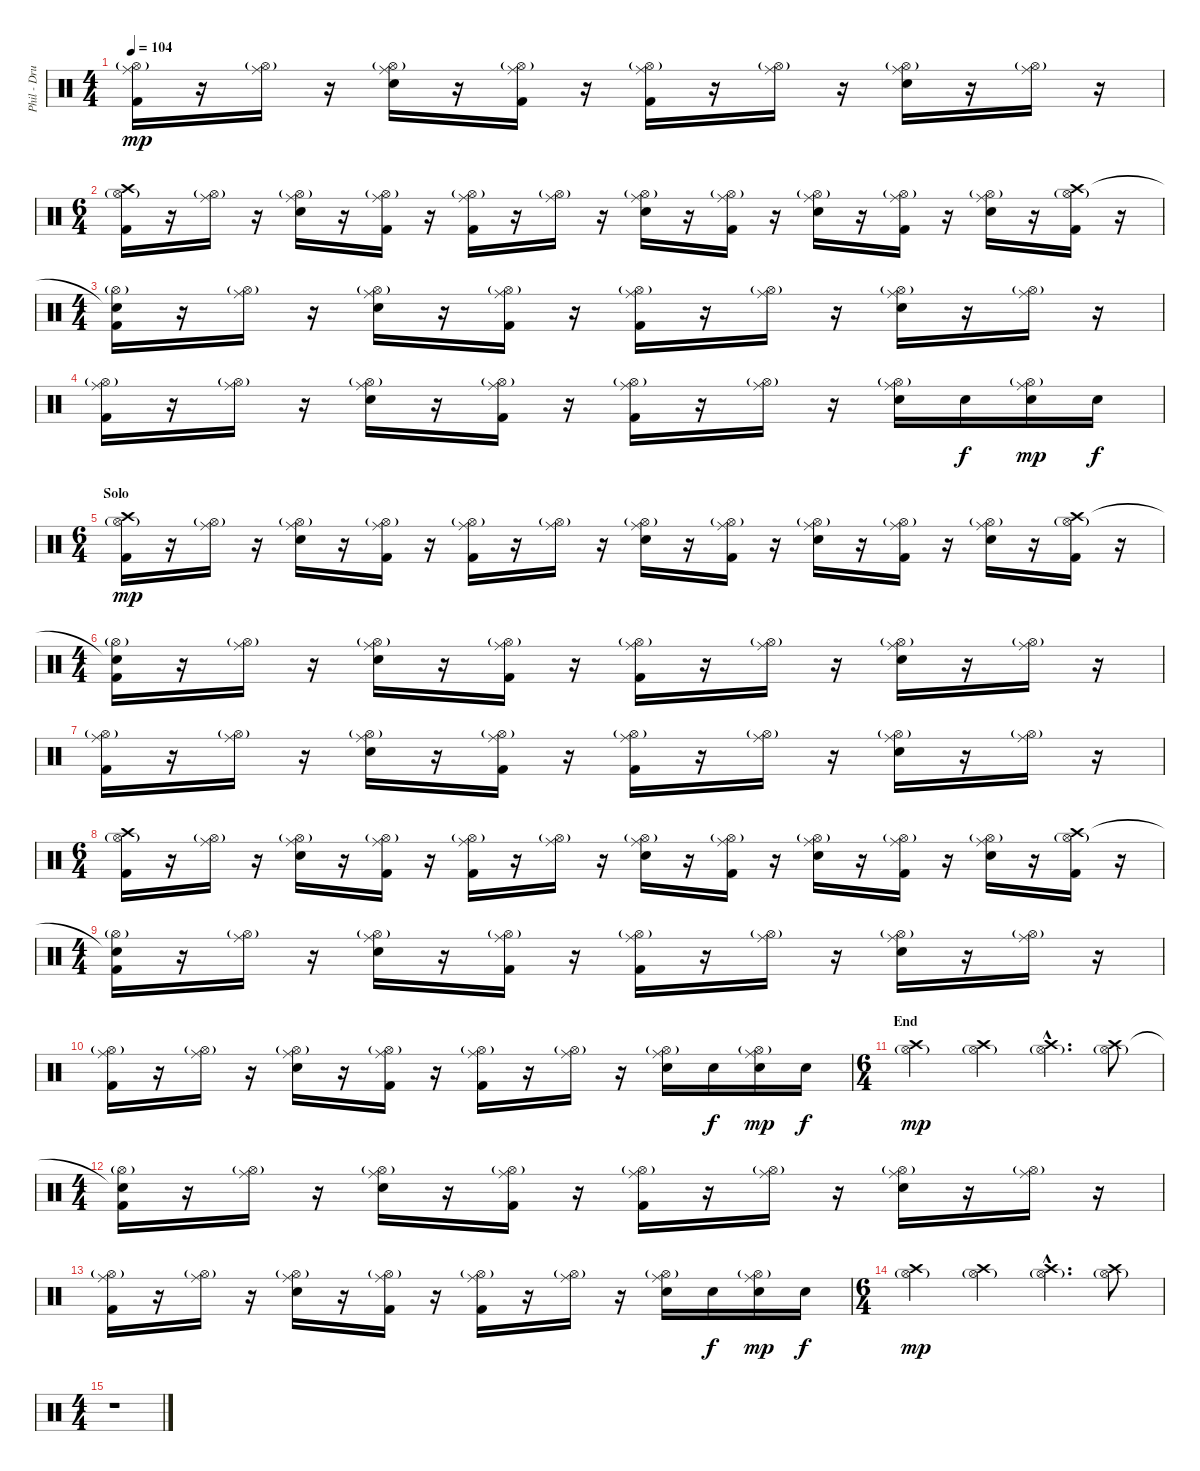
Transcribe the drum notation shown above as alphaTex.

\track ("Phil - Drums" "Phil - Dru") {instrument percussion}
\staff {score}
\articulation defaults
\ts (4 4)
\tempo 104
\clef neutral
\ks c
("Ride (middle)" "Kick (hit) 2" "Hi-Hat (open)"{g}).16{dy mp} r.16 ("Ride (middle)" "Hi-Hat (open)"{g}).16 r.16 ("Ride (middle)" "Electric Snare (hit)" "Hi-Hat (open)"{g}).16 r.16 ("Ride (middle)" "Kick (hit) 2" "Hi-Hat (open)"{g}).16 r.16 ("Ride (middle)" "Kick (hit) 2" "Hi-Hat (open)"{g}).16 r.16 ("Ride (middle)" "Hi-Hat (open)"{g}).16 r.16 ("Ride (middle)" "Electric Snare (hit)" "Hi-Hat (open)"{g}).16 r.16 ("Ride (middle)" "Hi-Hat (open)"{g}).16 r.16 |
\ts (6 4)
("Crash high (hit)" "Kick (hit) 2" "Hi-Hat (open)"{g}).16 r.16 ("Ride (middle)" "Hi-Hat (open)"{g}).16 r.16 ("Ride (middle)" "Electric Snare (hit)" "Hi-Hat (open)"{g}).16 r.16 ("Ride (middle)" "Kick (hit) 2" "Hi-Hat (open)"{g}).16 r.16 ("Ride (middle)" "Kick (hit) 2" "Hi-Hat (open)"{g}).16 r.16 ("Ride (middle)" "Hi-Hat (open)"{g}).16 r.16 ("Ride (middle)" "Electric Snare (hit)" "Hi-Hat (open)"{g}).16 r.16 ("Ride (middle)" "Kick (hit) 2" "Hi-Hat (open)"{g}).16 r.16 ("Ride (middle)" "Electric Snare (hit)" "Hi-Hat (open)"{g}).16 r.16 ("Ride (middle)" "Kick (hit) 2" "Hi-Hat (open)"{g}).16 r.16 ("Ride (middle)" "Electric Snare (hit)" "Hi-Hat (open)"{g}).16 r.16 ("Crash high (hit)" "Kick (hit) 2" "Hi-Hat (open)"{g}).16 r.16 |
\ts (4 4)
("Snare (hit)"{t} "Kick (hit) 2" "Hi-Hat (open)"{g}).16 r.16 ("Ride (middle)" "Hi-Hat (open)"{g}).16 r.16 ("Ride (middle)" "Electric Snare (hit)" "Hi-Hat (open)"{g}).16 r.16 ("Ride (middle)" "Kick (hit) 2" "Hi-Hat (open)"{g}).16 r.16 ("Ride (middle)" "Kick (hit) 2" "Hi-Hat (open)"{g}).16 r.16 ("Ride (middle)" "Hi-Hat (open)"{g}).16 r.16 ("Ride (middle)" "Electric Snare (hit)" "Hi-Hat (open)"{g}).16 r.16 ("Ride (middle)" "Hi-Hat (open)"{g}).16 r.16 |
("Ride (middle)" "Kick (hit) 2" "Hi-Hat (open)"{g}).16 r.16 ("Ride (middle)" "Hi-Hat (open)"{g}).16 r.16 ("Ride (middle)" "Electric Snare (hit)" "Hi-Hat (open)"{g}).16 r.16 ("Ride (middle)" "Kick (hit) 2" "Hi-Hat (open)"{g}).16 r.16 ("Ride (middle)" "Kick (hit) 2" "Hi-Hat (open)"{g}).16 r.16 ("Ride (middle)" "Hi-Hat (open)"{g}).16 r.16 ("Ride (middle)" "Electric Snare (hit)" "Hi-Hat (open)"{g}).16 "Electric Snare (hit)".16{dy f} ("Ride (middle)" "Electric Snare (hit)" "Hi-Hat (open)"{g}).16{dy mp} "Electric Snare (hit)".16{dy f} |
\ts (6 4)
\section ("" "Solo")
("Crash high (hit)" "Kick (hit) 2" "Hi-Hat (open)"{g}).16{dy mp} r.16 ("Ride (middle)" "Hi-Hat (open)"{g}).16 r.16 ("Ride (middle)" "Electric Snare (hit)" "Hi-Hat (open)"{g}).16 r.16 ("Ride (middle)" "Kick (hit) 2" "Hi-Hat (open)"{g}).16 r.16 ("Ride (middle)" "Kick (hit) 2" "Hi-Hat (open)"{g}).16 r.16 ("Ride (middle)" "Hi-Hat (open)"{g}).16 r.16 ("Ride (middle)" "Electric Snare (hit)" "Hi-Hat (open)"{g}).16 r.16 ("Ride (middle)" "Kick (hit) 2" "Hi-Hat (open)"{g}).16 r.16 ("Ride (middle)" "Electric Snare (hit)" "Hi-Hat (open)"{g}).16 r.16 ("Ride (middle)" "Kick (hit) 2" "Hi-Hat (open)"{g}).16 r.16 ("Ride (middle)" "Electric Snare (hit)" "Hi-Hat (open)"{g}).16 r.16 ("Crash high (hit)" "Kick (hit) 2" "Hi-Hat (open)"{g}).16 r.16 |
\ts (4 4)
("Snare (hit)"{t} "Kick (hit) 2" "Hi-Hat (open)"{g}).16 r.16 ("Ride (middle)" "Hi-Hat (open)"{g}).16 r.16 ("Ride (middle)" "Electric Snare (hit)" "Hi-Hat (open)"{g}).16 r.16 ("Ride (middle)" "Kick (hit) 2" "Hi-Hat (open)"{g}).16 r.16 ("Ride (middle)" "Kick (hit) 2" "Hi-Hat (open)"{g}).16 r.16 ("Ride (middle)" "Hi-Hat (open)"{g}).16 r.16 ("Ride (middle)" "Electric Snare (hit)" "Hi-Hat (open)"{g}).16 r.16 ("Ride (middle)" "Hi-Hat (open)"{g}).16 r.16 |
("Ride (middle)" "Kick (hit) 2" "Hi-Hat (open)"{g}).16 r.16 ("Ride (middle)" "Hi-Hat (open)"{g}).16 r.16 ("Ride (middle)" "Electric Snare (hit)" "Hi-Hat (open)"{g}).16 r.16 ("Ride (middle)" "Kick (hit) 2" "Hi-Hat (open)"{g}).16 r.16 ("Ride (middle)" "Kick (hit) 2" "Hi-Hat (open)"{g}).16 r.16 ("Ride (middle)" "Hi-Hat (open)"{g}).16 r.16 ("Ride (middle)" "Electric Snare (hit)" "Hi-Hat (open)"{g}).16 r.16 ("Ride (middle)" "Hi-Hat (open)"{g}).16 r.16 |
\ts (6 4)
("Crash high (hit)" "Kick (hit) 2" "Hi-Hat (open)"{g}).16 r.16 ("Ride (middle)" "Hi-Hat (open)"{g}).16 r.16 ("Ride (middle)" "Electric Snare (hit)" "Hi-Hat (open)"{g}).16 r.16 ("Ride (middle)" "Kick (hit) 2" "Hi-Hat (open)"{g}).16 r.16 ("Ride (middle)" "Kick (hit) 2" "Hi-Hat (open)"{g}).16 r.16 ("Ride (middle)" "Hi-Hat (open)"{g}).16 r.16 ("Ride (middle)" "Electric Snare (hit)" "Hi-Hat (open)"{g}).16 r.16 ("Ride (middle)" "Kick (hit) 2" "Hi-Hat (open)"{g}).16 r.16 ("Ride (middle)" "Electric Snare (hit)" "Hi-Hat (open)"{g}).16 r.16 ("Ride (middle)" "Kick (hit) 2" "Hi-Hat (open)"{g}).16 r.16 ("Ride (middle)" "Electric Snare (hit)" "Hi-Hat (open)"{g}).16 r.16 ("Crash high (hit)" "Kick (hit) 2" "Hi-Hat (open)"{g}).16 r.16 |
\ts (4 4)
("Snare (hit)"{t} "Kick (hit) 2" "Hi-Hat (open)"{g}).16 r.16 ("Ride (middle)" "Hi-Hat (open)"{g}).16 r.16 ("Ride (middle)" "Electric Snare (hit)" "Hi-Hat (open)"{g}).16 r.16 ("Ride (middle)" "Kick (hit) 2" "Hi-Hat (open)"{g}).16 r.16 ("Ride (middle)" "Kick (hit) 2" "Hi-Hat (open)"{g}).16 r.16 ("Ride (middle)" "Hi-Hat (open)"{g}).16 r.16 ("Ride (middle)" "Electric Snare (hit)" "Hi-Hat (open)"{g}).16 r.16 ("Ride (middle)" "Hi-Hat (open)"{g}).16 r.16 |
("Ride (middle)" "Kick (hit) 2" "Hi-Hat (open)"{g}).16 r.16 ("Ride (middle)" "Hi-Hat (open)"{g}).16 r.16 ("Ride (middle)" "Electric Snare (hit)" "Hi-Hat (open)"{g}).16 r.16 ("Ride (middle)" "Kick (hit) 2" "Hi-Hat (open)"{g}).16 r.16 ("Ride (middle)" "Kick (hit) 2" "Hi-Hat (open)"{g}).16 r.16 ("Ride (middle)" "Hi-Hat (open)"{g}).16 r.16 ("Ride (middle)" "Electric Snare (hit)" "Hi-Hat (open)"{g}).16 "Electric Snare (hit)".16{dy f} ("Ride (middle)" "Electric Snare (hit)" "Hi-Hat (open)"{g}).16{dy mp} "Electric Snare (hit)".16{dy f} |
\ts (6 4)
\section ("" "End")
("Crash high (hit)" "Hi-Hat (open)"{g}).2{dy mp} ("Crash high (hit)" "Hi-Hat (open)"{g}).2 ("Crash high (hit)"{hac} "Hi-Hat (open)"{g hac}).4{d} ("Crash high (hit)" "Hi-Hat (open)"{g}).8 |
\ts (4 4)
("Snare (hit)"{t} "Kick (hit) 2" "Hi-Hat (open)"{g}).16 r.16 ("Ride (middle)" "Hi-Hat (open)"{g}).16 r.16 ("Ride (middle)" "Electric Snare (hit)" "Hi-Hat (open)"{g}).16 r.16 ("Ride (middle)" "Kick (hit) 2" "Hi-Hat (open)"{g}).16 r.16 ("Ride (middle)" "Kick (hit) 2" "Hi-Hat (open)"{g}).16 r.16 ("Ride (middle)" "Hi-Hat (open)"{g}).16 r.16 ("Ride (middle)" "Electric Snare (hit)" "Hi-Hat (open)"{g}).16 r.16 ("Ride (middle)" "Hi-Hat (open)"{g}).16 r.16 |
("Ride (middle)" "Kick (hit) 2" "Hi-Hat (open)"{g}).16 r.16 ("Ride (middle)" "Hi-Hat (open)"{g}).16 r.16 ("Ride (middle)" "Electric Snare (hit)" "Hi-Hat (open)"{g}).16 r.16 ("Ride (middle)" "Kick (hit) 2" "Hi-Hat (open)"{g}).16 r.16 ("Ride (middle)" "Kick (hit) 2" "Hi-Hat (open)"{g}).16 r.16 ("Ride (middle)" "Hi-Hat (open)"{g}).16 r.16 ("Ride (middle)" "Electric Snare (hit)" "Hi-Hat (open)"{g}).16 "Electric Snare (hit)".16{dy f} ("Ride (middle)" "Electric Snare (hit)" "Hi-Hat (open)"{g}).16{dy mp} "Electric Snare (hit)".16{dy f} |
\ts (6 4)
("Crash high (hit)" "Hi-Hat (open)"{g}).2{dy mp} ("Crash high (hit)" "Hi-Hat (open)"{g}).2 ("Crash high (hit)"{hac} "Hi-Hat (open)"{g hac}).4{d} ("Crash high (hit)" "Hi-Hat (open)"{g}).8 |
\ts (4 4)
r.1
